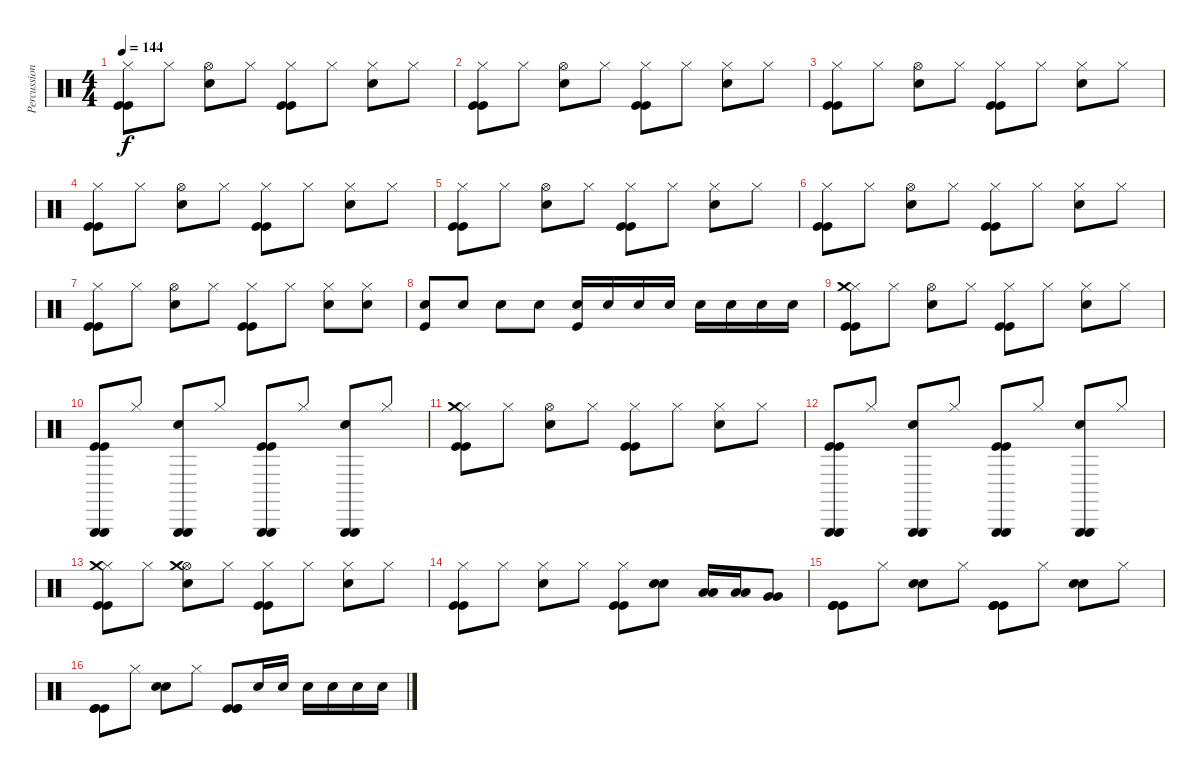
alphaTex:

\track ("Percussion" "Percussion") {instrument percussion}
\staff {score}
\articulation defaults
\ts (4 4)
\tempo 144
\clef neutral
\ks c
("Hi-Hat (closed)" "Kick (hit)" "Kick (hit)").8{dy f} "Hi-Hat (closed)".8 ("Hi-Hat (open)" "Snare (hit) 2").8 "Hi-Hat (closed)".8 ("Hi-Hat (closed)" "Kick (hit)" "Kick (hit)").8 "Hi-Hat (closed)".8 ("Hi-Hat (closed)" "Snare (hit) 2").8 "Hi-Hat (closed)".8 |
("Hi-Hat (closed)" "Kick (hit)" "Kick (hit)").8 "Hi-Hat (closed)".8 ("Hi-Hat (open)" "Snare (hit) 2").8 "Hi-Hat (closed)".8 ("Hi-Hat (closed)" "Kick (hit)" "Kick (hit)").8 "Hi-Hat (closed)".8 ("Hi-Hat (closed)" "Snare (hit) 2").8 "Hi-Hat (closed)".8 |
("Hi-Hat (closed)" "Kick (hit)" "Kick (hit)").8 "Hi-Hat (closed)".8 ("Hi-Hat (open)" "Snare (hit) 2").8 "Hi-Hat (closed)".8 ("Hi-Hat (closed)" "Kick (hit)" "Kick (hit)").8 "Hi-Hat (closed)".8 ("Hi-Hat (closed)" "Snare (hit) 2").8 "Hi-Hat (closed)".8 |
("Hi-Hat (closed)" "Kick (hit)" "Kick (hit)").8 "Hi-Hat (closed)".8 ("Hi-Hat (open)" "Snare (hit) 2").8 "Hi-Hat (closed)".8 ("Hi-Hat (closed)" "Kick (hit)" "Kick (hit)").8 "Hi-Hat (closed)".8 ("Hi-Hat (closed)" "Snare (hit) 2").8 "Hi-Hat (closed)".8 |
("Hi-Hat (closed)" "Kick (hit)" "Kick (hit)").8 "Hi-Hat (closed)".8 ("Hi-Hat (open)" "Snare (hit) 2").8 "Hi-Hat (closed)".8 ("Hi-Hat (closed)" "Kick (hit)" "Kick (hit)").8 "Hi-Hat (closed)".8 ("Hi-Hat (closed)" "Snare (hit) 2").8 "Hi-Hat (closed)".8 |
("Hi-Hat (closed)" "Kick (hit)" "Kick (hit)").8 "Hi-Hat (closed)".8 ("Hi-Hat (open)" "Snare (hit) 2").8 "Hi-Hat (closed)".8 ("Hi-Hat (closed)" "Kick (hit)" "Kick (hit)").8 "Hi-Hat (closed)".8 ("Hi-Hat (closed)" "Snare (hit) 2").8 "Hi-Hat (closed)".8 |
("Hi-Hat (closed)" "Kick (hit)" "Kick (hit)").8 "Hi-Hat (closed)".8 ("Hi-Hat (open)" "Snare (hit) 2").8 "Hi-Hat (closed)".8 ("Hi-Hat (closed)" "Kick (hit)" "Kick (hit)").8 "Hi-Hat (closed)".8 ("Hi-Hat (closed)" "Snare (hit) 2").8 ("Hi-Hat (closed)" "Snare (hit) 2").8 |
("Snare (hit) 2" "Kick (hit)").8 "Snare (hit) 2".8 "Snare (hit) 2".8 "Snare (hit) 2".8 ("Snare (hit) 2" "Kick (hit)").16 "Snare (hit) 2".16 "Snare (hit) 2".16 "Snare (hit) 2".16 "Snare (hit) 2".16 "Snare (hit) 2".16 "Snare (hit) 2".16 "Snare (hit) 2".16 |
("Hi-Hat (closed)" "Kick (hit)" "Kick (hit)" "Crash medium (hit)").8 "Hi-Hat (closed)".8 ("Hi-Hat (open)" "Snare (hit) 2").8 "Hi-Hat (closed)".8 ("Hi-Hat (closed)" "Kick (hit)" "Kick (hit)").8 "Hi-Hat (closed)".8 ("Hi-Hat (closed)" "Snare (hit) 2").8 "Hi-Hat (closed)".8 |
("Triangle (hit)" "Kick (hit)" "Kick (hit)" "Triangle (hit)").8 "Hi-Hat (closed)".8 ("Triangle (hit)" "Snare (hit) 2" "Triangle (hit)").8 "Hi-Hat (closed)".8 ("Triangle (hit)" "Kick (hit)" "Kick (hit)" "Triangle (hit)").8 "Hi-Hat (closed)".8 ("Triangle (hit)" "Snare (hit) 2" "Triangle (hit)").8 "Hi-Hat (closed)".8 |
("Hi-Hat (closed)" "Kick (hit)" "Kick (hit)" "Crash medium (hit)").8 "Hi-Hat (closed)".8 ("Hi-Hat (open)" "Snare (hit) 2").8 "Hi-Hat (closed)".8 ("Hi-Hat (closed)" "Kick (hit)" "Kick (hit)").8 "Hi-Hat (closed)".8 ("Hi-Hat (closed)" "Snare (hit) 2").8 "Hi-Hat (closed)".8 |
("Triangle (hit)" "Kick (hit)" "Kick (hit)" "Triangle (hit)").8 "Hi-Hat (closed)".8 ("Triangle (hit)" "Snare (hit) 2" "Triangle (hit)").8 "Hi-Hat (closed)".8 ("Triangle (hit)" "Kick (hit)" "Kick (hit)" "Triangle (hit)").8 "Hi-Hat (closed)".8 ("Triangle (hit)" "Snare (hit) 2" "Triangle (hit)").8 "Hi-Hat (closed)".8 |
("Hi-Hat (closed)" "Kick (hit)" "Kick (hit)" "Crash medium (hit)").8 "Hi-Hat (closed)".8 ("Hi-Hat (open)" "Snare (hit) 2" "Crash medium (hit)").8 "Hi-Hat (closed)".8 ("Hi-Hat (closed)" "Kick (hit)" "Kick (hit)").8 "Hi-Hat (closed)".8 ("Hi-Hat (closed)" "Snare (hit) 2").8 "Hi-Hat (closed)".8 |
("Hi-Hat (closed)" "Kick (hit)" "Kick (hit)").8 "Hi-Hat (closed)".8 ("Hi-Hat (closed)" "Snare (hit) 2").8 "Hi-Hat (closed)".8 ("Hi-Hat (closed)" "Kick (hit)" "Kick (hit)").8 ("Snare (hit) 2" "Snare (hit) 2").8 ("Low Floor Tom (hit)" "Low Floor Tom (hit)").16 ("Low Floor Tom (hit)" "Low Floor Tom (hit)").16 ("Very Low Tom (hit)" "Very Low Tom (hit)").8 |
("Kick (hit)" "Kick (hit)" "Kick (hit)" "Kick (hit)").8 "Hi-Hat (closed)".8 ("Snare (hit) 2" "Snare (hit) 2").8 "Hi-Hat (closed)".8 ("Kick (hit)" "Kick (hit)" "Kick (hit)" "Kick (hit)").8 "Hi-Hat (closed)".8 ("Snare (hit) 2" "Snare (hit) 2").8 "Hi-Hat (closed)".8 |
("Kick (hit)" "Kick (hit)" "Kick (hit)").8 "Hi-Hat (closed)".8 ("Snare (hit) 2" "Snare (hit) 2").8 "Hi-Hat (closed)".8 ("Kick (hit)" "Kick (hit)" "Kick (hit)").8 "Snare (hit) 2".16 "Snare (hit) 2".16 "Snare (hit) 2".16 "Snare (hit) 2".16 "Snare (hit) 2".16 "Snare (hit) 2".16
